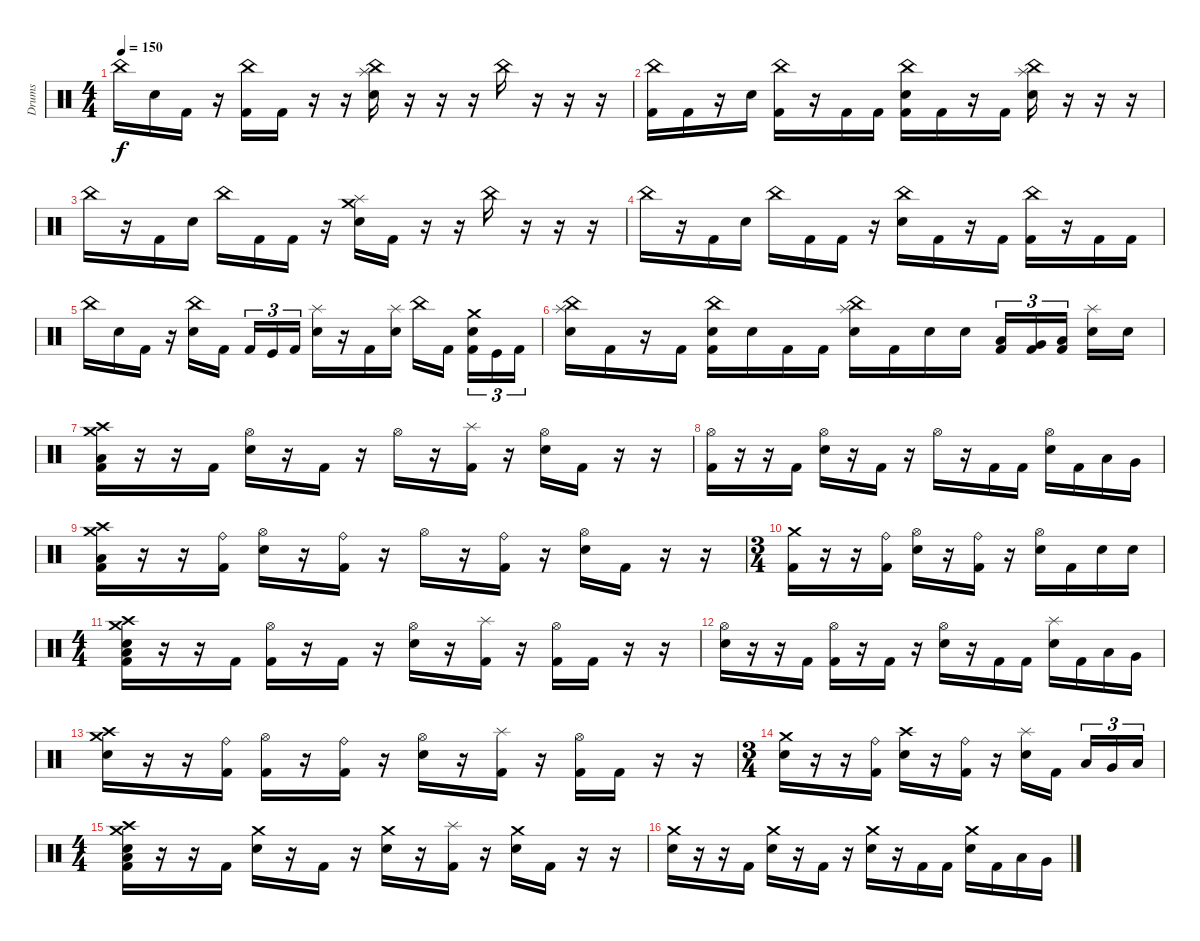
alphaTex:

\track ("Drums" "Drums") {instrument percussion}
\staff {score}
\articulation defaults
\ts (4 4)
\tempo 150
\clef neutral
\ks c "China (hit)".16{dy f} "Electric Snare (hit)".16 "Kick (hit) 2".16
r.16 ("China (hit)" "Kick (hit) 2").16 "Kick (hit) 2".16 r.16 r.16 ("China (hit)" "Splash (hit)" "Electric Snare (hit)").16 r.16 r.16 r.16 "China (hit)".16 r.16 r.16 r.16 |
("China (hit)" "Kick (hit) 2").16 "Kick (hit) 2".16 r.16 "Electric Snare (hit)".16 ("China (hit)" "Kick (hit) 2").16 r.16 "Kick (hit) 2".16 "Kick (hit) 2".16 ("China (hit)" "Electric Snare (hit)" "Kick (hit) 2").16 "Kick (hit) 2".16 r.16 "Kick (hit) 2".16 ("Splash (hit)" "China (hit)" "Electric Snare (hit)").16 r.16 r.16 r.16 |
"China (hit)".16 r.16 "Kick (hit) 2".16 "Electric Snare (hit)".16 "China (hit)".16 "Kick (hit) 2".16 "Kick (hit) 2".16 r.16 ("Crash medium (hit)" "Splash (hit)" "Electric Snare (hit)").16 "Kick (hit) 2".16 r.16 r.16 "China (hit)".16 r.16 r.16 r.16 |
"China (hit)".16 r.16 "Kick (hit) 2".16 "Electric Snare (hit)".16 "China (hit)".16 "Kick (hit) 2".16 "Kick (hit) 2".16 r.16 ("China (hit)" "Electric Snare (hit)").16 "Kick (hit) 2".16 r.16 "Kick (hit) 2".16 ("China (hit)" "Kick (hit) 2").16 r.16 "Kick (hit) 2".16 "Kick (hit) 2".16 |
"China (hit)".16 "Electric Snare (hit)".16 "Kick (hit) 2".16 r.16 ("China (hit)" "Electric Snare (hit)").16 "Kick (hit) 2".16 "Kick (hit) 2".16{tu (3 2)} "Kick (hit)".16{tu (3 2)} "Kick (hit) 2".16{tu (3 2)} ("Splash (hit)" "Electric Snare (hit)").16 r.16 "Kick (hit) 2".16 ("Splash (hit)" "Electric Snare (hit)").16 "China (hit)".16 "Kick (hit) 2".16 ("Crash medium (hit)" "Electric Snare (hit)" "Kick (hit) 2").16{tu (3 2)} "Kick (hit)".16{tu (3 2)} "Kick (hit) 2".16{tu (3 2)} |
("Splash (hit)" "China (hit)" "Electric Snare (hit)").16 "Kick (hit) 2".16 r.16 "Kick (hit) 2".16 ("China (hit)" "Electric Snare (hit)" "Kick (hit) 2").16 "Electric Snare (hit)".16 "Kick (hit) 2".16 "Kick (hit) 2".16 ("Splash (hit)" "China (hit)" "Electric Snare (hit)").16 "Kick (hit) 2".16 "Electric Snare (hit)".16 "Electric Snare (hit)".16 ("Low Tom (hit)" "Kick (hit) 2").16{tu (3 2)} ("Very Low Tom (hit)" "Kick (hit) 2").16{tu (3 2)} ("Low Floor Tom (hit)" "Kick (hit) 2").16{tu (3 2)} ("Splash (hit)" "Electric Snare (hit)").16 "Electric Snare (hit)".16 |
("Crash high (hit)" "Crash medium (hit)" "Low Floor Tom (hit)" "Kick (hit) 2").16 r.16 r.16 "Kick (hit) 2".16 ("Hi-Hat (open)" "Electric Snare (hit)").16 r.16 "Kick (hit) 2".16 r.16 "Hi-Hat (open)".16 r.16 ("Splash (hit)" "Kick (hit) 2").16 r.16 ("Hi-Hat (open)" "Electric Snare (hit)").16 "Kick (hit) 2".16 r.16 r.16 |
("Hi-Hat (open)" "Kick (hit) 2").16 r.16 r.16 "Kick (hit) 2".16 ("Hi-Hat (open)" "Electric Snare (hit)").16 r.16 "Kick (hit) 2".16 r.16 "Hi-Hat (open)".16 r.16 "Kick (hit) 2".16 "Kick (hit) 2".16 ("Hi-Hat (open)" "Electric Snare (hit)").16 "Kick (hit) 2".16 "Low Tom (hit)".16 "Very Low Tom (hit)".16 |
("Crash high (hit)" "Crash medium (hit)" "Low Floor Tom (hit)" "Kick (hit) 2").16 r.16 r.16 ("Ride (bell)" "Kick (hit) 2").16 ("Hi-Hat (open)" "Electric Snare (hit)").16 r.16 ("Ride (bell)" "Kick (hit) 2").16 r.16 "Hi-Hat (open)".16 r.16 ("Ride (bell)" "Kick (hit) 2").16 r.16 ("Hi-Hat (open)" "Electric Snare (hit)").16 "Kick (hit) 2".16 r.16 r.16 |
\ts (3 4)
("Crash medium (hit)" "Kick (hit) 2").16 r.16 r.16 ("Ride (bell)" "Kick (hit) 2").16 ("Hi-Hat (open)" "Electric Snare (hit)").16 r.16 ("Ride (bell)" "Kick (hit) 2").16 r.16 ("Hi-Hat (open)" "Electric Snare (hit)").16 "Kick (hit) 2".16 "Electric Snare (hit)".16 "Electric Snare (hit)".16 |
\ts (4 4)
("Crash high (hit)" "Crash medium (hit)" "Electric Snare (hit)" "Low Floor Tom (hit)" "Kick (hit) 2").16 r.16 r.16 "Kick (hit) 2".16 ("Hi-Hat (open)" "Kick (hit) 2").16 r.16 "Kick (hit) 2".16 r.16 ("Hi-Hat (open)" "Electric Snare (hit)").16 r.16 ("Splash (hit)" "Kick (hit) 2").16 r.16 ("Hi-Hat (open)" "Kick (hit) 2").16 "Kick (hit) 2".16 r.16 r.16 |
("Hi-Hat (open)" "Electric Snare (hit)").16 r.16 r.16 "Kick (hit) 2".16 ("Hi-Hat (open)" "Kick (hit) 2").16 r.16 "Kick (hit) 2".16 r.16 ("Hi-Hat (open)" "Electric Snare (hit)").16 r.16 "Kick (hit) 2".16 "Kick (hit) 2".16 ("Splash (hit)" "Electric Snare (hit)").16 "Kick (hit) 2".16 "Low Tom (hit)".16 "Very Low Tom (hit)".16 |
("Crash high (hit)" "Crash medium (hit)" "Electric Snare (hit)").16 r.16 r.16 ("Ride (bell)" "Kick (hit) 2").16 ("Hi-Hat (open)" "Kick (hit) 2").16 r.16 ("Ride (bell)" "Kick (hit) 2").16 r.16 ("Hi-Hat (open)" "Electric Snare (hit)").16 r.16 ("Splash (hit)" "Kick (hit) 2").16 r.16 ("Hi-Hat (open)" "Kick (hit) 2").16 "Kick (hit) 2".16 r.16 r.16 |
\ts (3 4)
("Crash medium (hit)" "Electric Snare (hit)").16 r.16 r.16 ("Ride (bell)" "Kick (hit) 2").16 ("Crash high (hit)" "Electric Snare (hit)").16 r.16 ("Ride (bell)" "Kick (hit) 2").16 r.16 ("Splash (hit)" "Electric Snare (hit)").16 "Kick (hit) 2".16 "Low Tom (hit)".16{tu (3 2)} "Very Low Tom (hit)".16{tu (3 2)} "Low Floor Tom (hit)".16{tu (3 2)} |
\ts (4 4)
("Crash high (hit)" "Crash medium (hit)" "Electric Snare (hit)" "Low Floor Tom (hit)" "Kick (hit) 2").16 r.16 r.16 "Kick (hit) 2".16 ("Crash medium (hit)" "Electric Snare (hit)").16 r.16 "Kick (hit) 2".16 r.16 ("Crash medium (hit)" "Electric Snare (hit)").16 r.16 ("Splash (hit)" "Kick (hit) 2").16 r.16 ("Crash medium (hit)" "Electric Snare (hit)").16 "Kick (hit) 2".16 r.16 r.16 |
("Crash medium (hit)" "Electric Snare (hit)").16 r.16 r.16 "Kick (hit) 2".16 ("Crash medium (hit)" "Electric Snare (hit)").16 r.16 "Kick (hit) 2".16 r.16 ("Crash medium (hit)" "Electric Snare (hit)").16 r.16 "Kick (hit) 2".16 "Kick (hit) 2".16 ("Crash medium (hit)" "Electric Snare (hit)").16 "Kick (hit) 2".16 "Low Tom (hit)".16 "Very Low Tom (hit)".16
